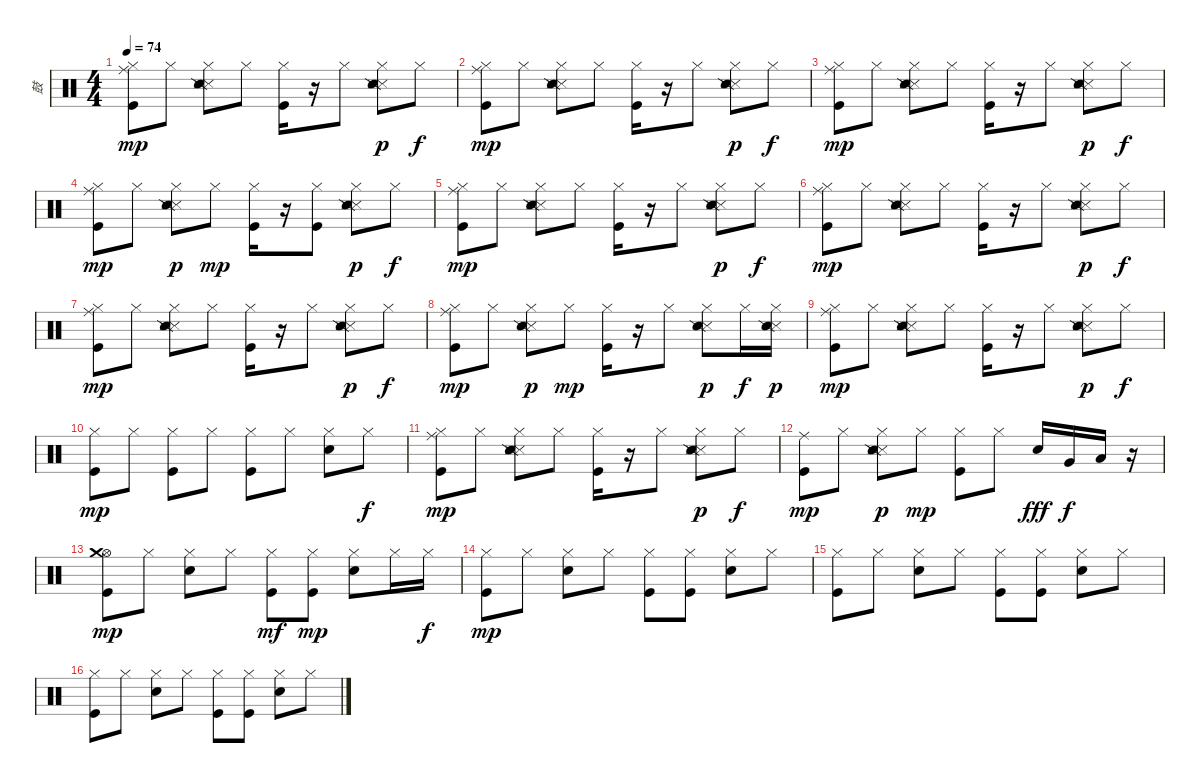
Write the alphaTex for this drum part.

\track ("鼓" "鼓") {instrument percussion}
\staff {score}
\articulation defaults
\ts (4 4)
\tempo 74
\clef neutral
\ks c
("Kick (hit)" "Ride (middle)" "Hi-Hat (closed)").8{dy mp} "Hi-Hat (closed)".8 ("Snare (side stick) 3" "Hi-Hat (closed)" "Snare (side stick) 2" "Snare (side stick) 3").8 "Hi-Hat (closed)".8 ("Kick (hit)" "Hi-Hat (closed)").16 r.16 "Hi-Hat (closed)".8 ("Snare (side stick) 3" "Hi-Hat (closed)" "Snare (side stick) 2" "Snare (side stick) 3").8{dy p} "Hi-Hat (closed)".8{dy f} |
("Kick (hit)" "Ride (middle)" "Hi-Hat (closed)").8{dy mp} "Hi-Hat (closed)".8 ("Snare (side stick) 3" "Hi-Hat (closed)" "Snare (side stick) 2" "Snare (side stick) 3").8 "Hi-Hat (closed)".8 ("Kick (hit)" "Hi-Hat (closed)").16 r.16 "Hi-Hat (closed)".8 ("Snare (side stick) 3" "Hi-Hat (closed)" "Snare (side stick) 2" "Snare (side stick) 3").8{dy p} "Hi-Hat (closed)".8{dy f} |
("Kick (hit)" "Ride (middle)" "Hi-Hat (closed)").8{dy mp} "Hi-Hat (closed)".8 ("Snare (side stick) 3" "Hi-Hat (closed)" "Snare (side stick) 2" "Snare (side stick) 3").8 "Hi-Hat (closed)".8 ("Kick (hit)" "Hi-Hat (closed)").16 r.16 "Hi-Hat (closed)".8 ("Snare (side stick) 3" "Hi-Hat (closed)" "Snare (side stick) 2" "Snare (side stick) 3").8{dy p} "Hi-Hat (closed)".8{dy f} |
("Kick (hit)" "Ride (middle)" "Hi-Hat (closed)").8{dy mp} "Hi-Hat (closed)".8 ("Snare (side stick) 3" "Hi-Hat (closed)" "Snare (side stick) 2" "Snare (side stick) 3").8{dy p} "Hi-Hat (closed)".8{dy mp} ("Kick (hit)" "Hi-Hat (closed)").16 r.16 ("Kick (hit)" "Hi-Hat (closed)").8 ("Snare (side stick) 3" "Hi-Hat (closed)" "Snare (side stick) 2" "Snare (side stick) 3").8{dy p} "Hi-Hat (closed)".8{dy f} |
("Kick (hit)" "Ride (middle)" "Hi-Hat (closed)").8{dy mp} "Hi-Hat (closed)".8 ("Snare (side stick) 3" "Hi-Hat (closed)" "Snare (side stick) 2" "Snare (side stick) 3").8 "Hi-Hat (closed)".8 ("Kick (hit)" "Hi-Hat (closed)").16 r.16 "Hi-Hat (closed)".8 ("Snare (side stick) 3" "Hi-Hat (closed)" "Snare (side stick) 2" "Snare (side stick) 3").8{dy p} "Hi-Hat (closed)".8{dy f} |
("Kick (hit)" "Ride (middle)" "Hi-Hat (closed)").8{dy mp} "Hi-Hat (closed)".8 ("Snare (side stick) 3" "Hi-Hat (closed)" "Snare (side stick) 2" "Snare (side stick) 3").8 "Hi-Hat (closed)".8 ("Kick (hit)" "Hi-Hat (closed)").16 r.16 "Hi-Hat (closed)".8 ("Snare (side stick) 3" "Hi-Hat (closed)" "Snare (side stick) 2" "Snare (side stick) 3").8{dy p} "Hi-Hat (closed)".8{dy f} |
("Kick (hit)" "Ride (middle)" "Hi-Hat (closed)").8{dy mp} "Hi-Hat (closed)".8 ("Snare (side stick) 3" "Hi-Hat (closed)" "Snare (side stick) 2" "Snare (side stick) 3").8 "Hi-Hat (closed)".8 ("Kick (hit)" "Hi-Hat (closed)").16 r.16 "Hi-Hat (closed)".8 ("Snare (side stick) 3" "Hi-Hat (closed)" "Snare (side stick) 2" "Snare (side stick) 3").8{dy p} "Hi-Hat (closed)".8{dy f} |
("Kick (hit)" "Ride (middle)" "Hi-Hat (closed)").8{dy mp} "Hi-Hat (closed)".8 ("Snare (side stick) 3" "Hi-Hat (closed)" "Snare (side stick) 2").8{dy p} "Hi-Hat (closed)".8{dy mp} ("Kick (hit)" "Hi-Hat (closed)").16 r.16 "Hi-Hat (closed)".8 ("Snare (side stick) 3" "Hi-Hat (closed)" "Snare (side stick) 2").8{dy p} "Hi-Hat (closed)".16{dy f} ("Snare (side stick) 3" "Hi-Hat (closed)" "Snare (side stick) 2").16{dy p} |
("Kick (hit)" "Ride (middle)" "Hi-Hat (closed)").8{dy mp} "Hi-Hat (closed)".8 ("Snare (side stick) 3" "Hi-Hat (closed)" "Snare (side stick) 2" "Snare (side stick) 3").8 "Hi-Hat (closed)".8 ("Kick (hit)" "Hi-Hat (closed)").16 r.16 "Hi-Hat (closed)".8 ("Snare (side stick) 3" "Hi-Hat (closed)" "Snare (side stick) 2" "Snare (side stick) 3").8{dy p} "Hi-Hat (closed)".8{dy f} |
("Kick (hit)" "Hi-Hat (closed)").8{dy mp} "Hi-Hat (closed)".8 ("Kick (hit)" "Hi-Hat (closed)").8 "Hi-Hat (closed)".8 ("Kick (hit)" "Hi-Hat (closed)").8 "Hi-Hat (closed)".8 ("Electric Snare (hit)" "Hi-Hat (closed)").8 "Hi-Hat (closed)".8{dy f} |
("Kick (hit)" "Ride (middle)" "Hi-Hat (closed)").8{dy mp} "Hi-Hat (closed)".8 ("Snare (side stick) 3" "Hi-Hat (closed)" "Snare (side stick) 2" "Snare (side stick) 3").8 "Hi-Hat (closed)".8 ("Kick (hit)" "Hi-Hat (closed)").16 r.16 "Hi-Hat (closed)".8 ("Snare (side stick) 3" "Hi-Hat (closed)" "Snare (side stick) 2" "Snare (side stick) 3").8{dy p} "Hi-Hat (closed)".8{dy f} |
("Kick (hit)" "Ride (middle)").8{dy mp} "Hi-Hat (closed)".8 ("Snare (side stick) 3" "Hi-Hat (closed)" "Snare (side stick) 2" "Snare (side stick) 3").8{dy p} "Hi-Hat (closed)".8{dy mp} ("Kick (hit)" "Hi-Hat (closed)").8 "Hi-Hat (closed)".8 "Electric Snare (hit)".16{dy fff} "Very Low Tom (hit)".16{dy f} "Low Floor Tom (hit)".16 r.16 |
("Kick (hit)" "Hi-Hat (open)" "Crash medium (hit)").8{dy mp} "Hi-Hat (closed)".8 ("Electric Snare (hit)" "Hi-Hat (closed)").8 "Hi-Hat (closed)".8 ("Kick (hit)" "Hi-Hat (closed)").8{dy mf} ("Kick (hit)" "Hi-Hat (closed)").8{dy mp} ("Electric Snare (hit)" "Hi-Hat (closed)").8 "Hi-Hat (closed)".16 "Hi-Hat (closed)".16{dy f} |
("Kick (hit)" "Hi-Hat (closed)").8{dy mp} "Hi-Hat (closed)".8 ("Electric Snare (hit)" "Hi-Hat (closed)").8 "Hi-Hat (closed)".8 ("Kick (hit)" "Hi-Hat (closed)").8 ("Kick (hit)" "Hi-Hat (closed)").8 ("Electric Snare (hit)" "Hi-Hat (closed)").8 "Hi-Hat (closed)".8 |
("Kick (hit)" "Hi-Hat (closed)").8 "Hi-Hat (closed)".8 ("Electric Snare (hit)" "Hi-Hat (closed)").8 "Hi-Hat (closed)".8 ("Kick (hit)" "Hi-Hat (closed)").8 ("Kick (hit)" "Hi-Hat (closed)").8 ("Electric Snare (hit)" "Hi-Hat (closed)").8 "Hi-Hat (closed)".8 |
("Kick (hit)" "Hi-Hat (closed)").8 "Hi-Hat (closed)".8 ("Electric Snare (hit)" "Hi-Hat (closed)").8 "Hi-Hat (closed)".8 ("Kick (hit)" "Hi-Hat (closed)").8 ("Kick (hit)" "Hi-Hat (closed)").8 ("Electric Snare (hit)" "Hi-Hat (closed)").8 "Hi-Hat (closed)".8
